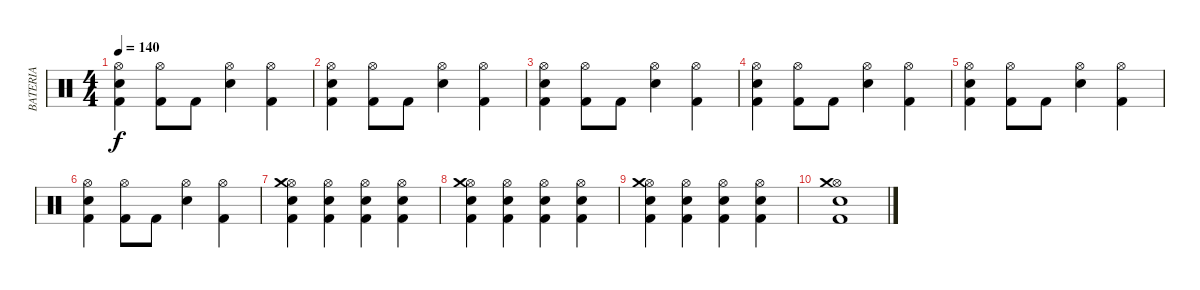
\track ("BATERIA" "BATERIA") {instrument percussion}
\staff {score}
\articulation defaults
\ts (4 4)
\tempo 140
\clef neutral
\ks c
("Kick (hit) 2" "Electric Snare (hit)" "Hi-Hat (open)").4{dy f} ("Kick (hit) 2" "Hi-Hat (open)").8 "Kick (hit) 2".8 ("Electric Snare (hit)" "Hi-Hat (open)").4 ("Kick (hit) 2" "Hi-Hat (open)").4 |
("Kick (hit) 2" "Electric Snare (hit)" "Hi-Hat (open)").4 ("Kick (hit) 2" "Hi-Hat (open)").8 "Kick (hit) 2".8 ("Electric Snare (hit)" "Hi-Hat (open)").4 ("Kick (hit) 2" "Hi-Hat (open)").4 |
("Kick (hit) 2" "Electric Snare (hit)" "Hi-Hat (open)").4 ("Kick (hit) 2" "Hi-Hat (open)").8 "Kick (hit) 2".8 ("Electric Snare (hit)" "Hi-Hat (open)").4 ("Kick (hit) 2" "Hi-Hat (open)").4 |
("Kick (hit) 2" "Electric Snare (hit)" "Hi-Hat (open)").4 ("Kick (hit) 2" "Hi-Hat (open)").8 "Kick (hit) 2".8 ("Electric Snare (hit)" "Hi-Hat (open)").4 ("Kick (hit) 2" "Hi-Hat (open)").4 |
("Kick (hit) 2" "Electric Snare (hit)" "Hi-Hat (open)").4 ("Kick (hit) 2" "Hi-Hat (open)").8 "Kick (hit) 2".8 ("Electric Snare (hit)" "Hi-Hat (open)").4 ("Kick (hit) 2" "Hi-Hat (open)").4 |
("Kick (hit) 2" "Electric Snare (hit)" "Hi-Hat (open)").4 ("Kick (hit) 2" "Hi-Hat (open)").8 "Kick (hit) 2".8 ("Electric Snare (hit)" "Hi-Hat (open)").4 ("Kick (hit) 2" "Hi-Hat (open)").4 |
("Kick (hit) 2" "Electric Snare (hit)" "Hi-Hat (open)" "Crash medium (hit)").4 ("Kick (hit) 2" "Electric Snare (hit)" "Hi-Hat (open)").4 ("Kick (hit) 2" "Electric Snare (hit)" "Hi-Hat (open)").4 ("Kick (hit) 2" "Electric Snare (hit)" "Hi-Hat (open)").4 |
("Kick (hit) 2" "Electric Snare (hit)" "Hi-Hat (open)" "Crash medium (hit)").4 ("Kick (hit) 2" "Electric Snare (hit)" "Hi-Hat (open)").4 ("Kick (hit) 2" "Electric Snare (hit)" "Hi-Hat (open)").4 ("Kick (hit) 2" "Electric Snare (hit)" "Hi-Hat (open)").4 |
("Kick (hit) 2" "Electric Snare (hit)" "Hi-Hat (open)" "Crash medium (hit)").4 ("Kick (hit) 2" "Electric Snare (hit)" "Hi-Hat (open)").4 ("Kick (hit) 2" "Electric Snare (hit)" "Hi-Hat (open)").4 ("Kick (hit) 2" "Electric Snare (hit)" "Hi-Hat (open)").4 |
("Kick (hit) 2" "Electric Snare (hit)" "Hi-Hat (open)" "Crash medium (hit)").1
